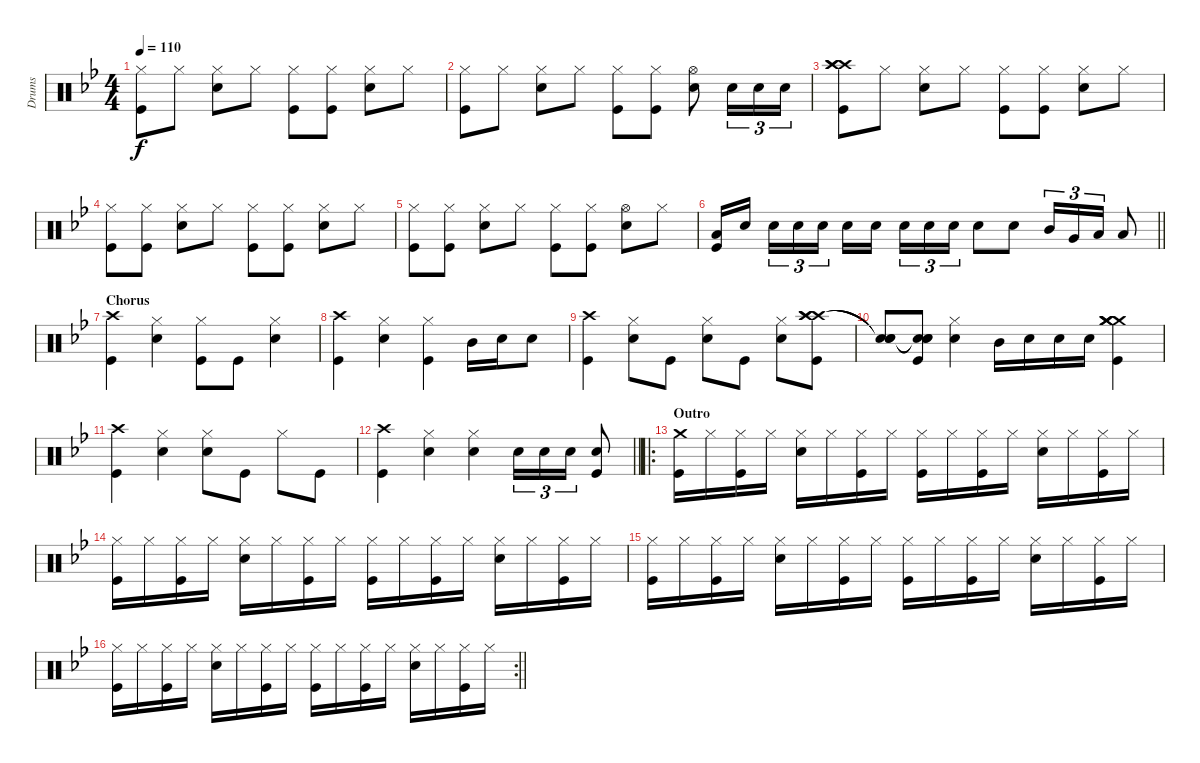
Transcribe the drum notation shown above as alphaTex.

\track ("Drums" "Drums") {instrument percussion}
\staff {score}
\articulation defaults
\ts (4 4)
\tempo 110
\clef neutral
\ks bb
("Hi-Hat (closed)" "Kick (hit)").8{dy f} "Hi-Hat (closed)".8 ("Hi-Hat (closed)" "Snare (hit) 2").8 "Hi-Hat (closed)".8 ("Hi-Hat (closed)" "Kick (hit)").8 ("Hi-Hat (closed)" "Kick (hit)").8 ("Hi-Hat (closed)" "Snare (hit) 2").8 "Hi-Hat (closed)".8 |
("Hi-Hat (closed)" "Kick (hit)").8 "Hi-Hat (closed)".8 ("Hi-Hat (closed)" "Snare (hit) 2").8 "Hi-Hat (closed)".8 ("Hi-Hat (closed)" "Kick (hit)").8 ("Hi-Hat (closed)" "Kick (hit)").8 ("Hi-Hat (open)" "Snare (hit) 2").8 "Snare (hit) 2".16{tu (3 2)} "Snare (hit) 2".16{tu (3 2)} "Snare (hit) 2".16{tu (3 2)} |
("Crash high (hit)" "Crash high (hit)" "Crash high (hit)" "Kick (hit)").8 "Hi-Hat (closed)".8 ("Hi-Hat (closed)" "Snare (hit) 2").8 "Hi-Hat (closed)".8 ("Hi-Hat (closed)" "Kick (hit)").8 ("Hi-Hat (closed)" "Kick (hit)").8 ("Hi-Hat (closed)" "Snare (hit) 2").8 "Hi-Hat (closed)".8 |
("Hi-Hat (closed)" "Kick (hit)").8 ("Hi-Hat (closed)" "Kick (hit)").8 ("Hi-Hat (closed)" "Snare (hit) 2").8 "Hi-Hat (closed)".8 ("Hi-Hat (closed)" "Kick (hit)").8 ("Hi-Hat (closed)" "Kick (hit)").8 ("Hi-Hat (closed)" "Snare (hit) 2").8 "Hi-Hat (closed)".8 |
("Hi-Hat (closed)" "Kick (hit)").8 ("Hi-Hat (closed)" "Kick (hit)").8 ("Hi-Hat (closed)" "Snare (hit) 2").8 "Hi-Hat (closed)".8 ("Hi-Hat (closed)" "Kick (hit)").8 ("Hi-Hat (closed)" "Kick (hit)").8 ("Hi-Hat (open)" "Snare (hit) 2").8 "Hi-Hat (closed)".8 |
\barLineRight lightlight
("Low Tom (hit)" "Kick (hit)").16 "Snare (hit) 2".16{beam splitsecondary} "Snare (hit) 2".16{tu (3 2)} "Snare (hit) 2".16{tu (3 2)} "Snare (hit) 2".16{tu (3 2)} "Snare (hit) 2".16 "Snare (hit) 2".16{beam splitsecondary} "Snare (hit) 2".16{tu (3 2)} "Snare (hit) 2".16{tu (3 2)} "Snare (hit) 2".16{tu (3 2)} "Snare (hit) 2".8 "Snare (hit) 2".8 "Mid Tom (hit)".16{tu (3 2)} "Very Low Tom (hit)".16{tu (3 2)} "Low Tom (hit)".16{tu (3 2)} "Low Tom (hit)".8 |
\section ("" "Chorus")
("Crash high (hit)" "Kick (hit)").4 ("Hi-Hat (closed)" "Snare (hit) 2").4 ("Hi-Hat (closed)" "Kick (hit)").8 "Kick (hit)".8 ("Hi-Hat (closed)" "Snare (hit) 2").4 |
("Crash high (hit)" "Kick (hit)").4 ("Hi-Hat (closed)" "Snare (hit) 2").4 ("Hi-Hat (closed)" "Kick (hit)").4 "Mid Tom (hit)".16 "Snare (hit) 2".16 "Snare (hit) 2".8 |
("Crash high (hit)" "Kick (hit)").4 ("Hi-Hat (closed)" "Snare (hit) 2").8 "Kick (hit)".8 ("Hi-Hat (closed)" "Snare (hit) 2").8 "Kick (hit)".8 ("Hi-Hat (closed)" "Snare (hit) 2").8 ("Crash high (hit)" "Crash high (hit)" "Crash high (hit)" "Kick (hit)").8 |
("Snare (hit)"{t} "Snare (hit)"{t} "Snare (hit)"{t}).8 ("Snare (hit)"{t} "Snare (hit)"{t} "Snare (hit)"{t} "Kick (hit)").8 ("Hi-Hat (closed)" "Snare (hit) 2").4 "Mid Tom (hit)".16 "Snare (hit) 2".16 "Snare (hit) 2".16 "Snare (hit) 2".16 ("Crash medium (hit)" "Crash medium (hit)" "Crash medium (hit)" "Crash medium (hit)" "Kick (hit)").4 |
("Crash high (hit)" "Kick (hit)").4 ("Hi-Hat (closed)" "Snare (hit) 2").4 ("Hi-Hat (closed)" "Snare (hit) 2").8 "Kick (hit)".8 "Hi-Hat (closed)".8 "Kick (hit)".8 |
\barLineRight lightlight
("Crash high (hit)" "Kick (hit)").4 ("Hi-Hat (closed)" "Snare (hit) 2").4 ("Hi-Hat (closed)" "Snare (hit) 2").4 "Snare (hit) 2".16{tu (3 2)} "Snare (hit) 2".16{tu (3 2)} "Snare (hit) 2".16{tu (3 2)} ("Snare (hit) 2" "Kick (hit)").8 |
\ro
\section ("" "Outro")
("Crash medium (hit)" "Kick (hit)").16 "Hi-Hat (closed)".16 ("Hi-Hat (closed)" "Kick (hit)").16 "Hi-Hat (closed)".16 ("Hi-Hat (closed)" "Snare (hit) 2").16 "Hi-Hat (closed)".16 ("Hi-Hat (closed)" "Kick (hit)").16 "Hi-Hat (closed)".16 ("Hi-Hat (closed)" "Kick (hit)").16 "Hi-Hat (closed)".16 ("Hi-Hat (closed)" "Kick (hit)").16 "Hi-Hat (closed)".16 ("Hi-Hat (closed)" "Snare (hit) 2").16 "Hi-Hat (closed)".16 ("Hi-Hat (closed)" "Kick (hit)").16 "Hi-Hat (closed)".16 |
("Hi-Hat (closed)" "Kick (hit)").16 "Hi-Hat (closed)".16 ("Hi-Hat (closed)" "Kick (hit)").16 "Hi-Hat (closed)".16 ("Hi-Hat (closed)" "Snare (hit) 2").16 "Hi-Hat (closed)".16 ("Hi-Hat (closed)" "Kick (hit)").16 "Hi-Hat (closed)".16 ("Hi-Hat (closed)" "Kick (hit)").16 "Hi-Hat (closed)".16 ("Hi-Hat (closed)" "Kick (hit)").16 "Hi-Hat (closed)".16 ("Hi-Hat (closed)" "Snare (hit) 2").16 "Hi-Hat (closed)".16 ("Hi-Hat (closed)" "Kick (hit)").16 "Hi-Hat (closed)".16 |
("Hi-Hat (closed)" "Kick (hit)").16 "Hi-Hat (closed)".16 ("Hi-Hat (closed)" "Kick (hit)").16 "Hi-Hat (closed)".16 ("Hi-Hat (closed)" "Snare (hit) 2").16 "Hi-Hat (closed)".16 ("Hi-Hat (closed)" "Kick (hit)").16 "Hi-Hat (closed)".16 ("Hi-Hat (closed)" "Kick (hit)").16 "Hi-Hat (closed)".16 ("Hi-Hat (closed)" "Kick (hit)").16 "Hi-Hat (closed)".16 ("Hi-Hat (closed)" "Snare (hit) 2").16 "Hi-Hat (closed)".16 ("Hi-Hat (closed)" "Kick (hit)").16 "Hi-Hat (closed)".16 |
\rc 2
\barLineRight lightlight
("Hi-Hat (closed)" "Kick (hit)").16 "Hi-Hat (closed)".16 ("Hi-Hat (closed)" "Kick (hit)").16 "Hi-Hat (closed)".16 ("Hi-Hat (closed)" "Snare (hit) 2").16 "Hi-Hat (closed)".16 ("Hi-Hat (closed)" "Kick (hit)").16 "Hi-Hat (closed)".16 ("Hi-Hat (closed)" "Kick (hit)").16 "Hi-Hat (closed)".16 ("Hi-Hat (closed)" "Kick (hit)").16 "Hi-Hat (closed)".16 ("Hi-Hat (closed)" "Snare (hit) 2").16 "Hi-Hat (closed)".16 ("Hi-Hat (closed)" "Kick (hit)").16 "Hi-Hat (closed)".16
